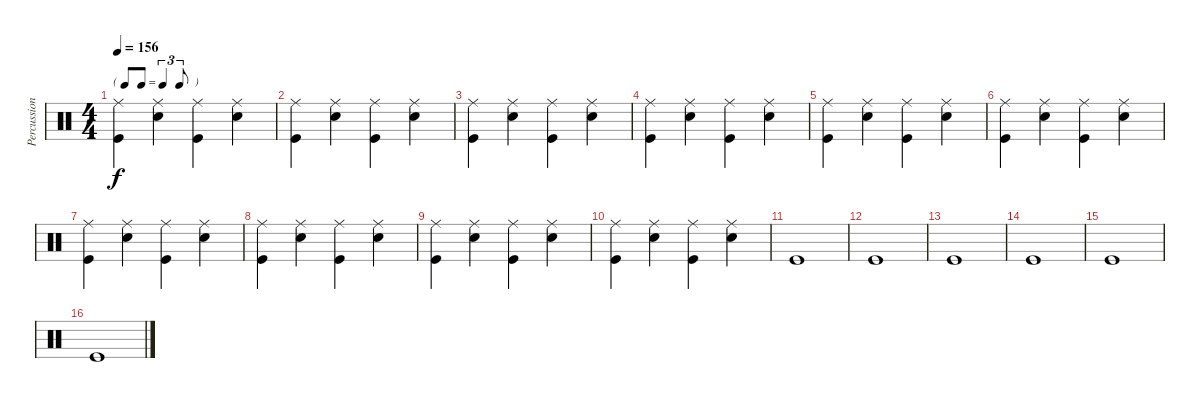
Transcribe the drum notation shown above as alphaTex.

\track ("Percussion" "Percussion") {instrument percussion}
\staff {score}
\articulation defaults
\ts (4 4)
\tf triplet8th
\tempo 156
\clef neutral
\ks c
("Ride (middle)" "Kick (hit)").4{dy f} ("Snare (hit) 2" "Ride (middle)").4 ("Ride (middle)" "Kick (hit)").4 ("Snare (hit) 2" "Ride (middle)").4 |
("Ride (middle)" "Kick (hit)").4 ("Snare (hit) 2" "Ride (middle)").4 ("Ride (middle)" "Kick (hit)").4 ("Snare (hit) 2" "Ride (middle)").4 |
("Ride (middle)" "Kick (hit)").4 ("Snare (hit) 2" "Ride (middle)").4 ("Ride (middle)" "Kick (hit)").4 ("Snare (hit) 2" "Ride (middle)").4 |
("Ride (middle)" "Kick (hit)").4 ("Snare (hit) 2" "Ride (middle)").4 ("Ride (middle)" "Kick (hit)").4 ("Snare (hit) 2" "Ride (middle)").4 |
("Ride (middle)" "Kick (hit)").4 ("Snare (hit) 2" "Ride (middle)").4 ("Ride (middle)" "Kick (hit)").4 ("Snare (hit) 2" "Ride (middle)").4 |
("Ride (middle)" "Kick (hit)").4 ("Snare (hit) 2" "Ride (middle)").4 ("Ride (middle)" "Kick (hit)").4 ("Snare (hit) 2" "Ride (middle)").4 |
("Ride (middle)" "Kick (hit)").4 ("Snare (hit) 2" "Ride (middle)").4 ("Ride (middle)" "Kick (hit)").4 ("Snare (hit) 2" "Ride (middle)").4 |
("Ride (middle)" "Kick (hit)").4 ("Snare (hit) 2" "Ride (middle)").4 ("Ride (middle)" "Kick (hit)").4 ("Snare (hit) 2" "Ride (middle)").4 |
("Ride (middle)" "Kick (hit)").4 ("Snare (hit) 2" "Ride (middle)").4 ("Ride (middle)" "Kick (hit)").4 ("Snare (hit) 2" "Ride (middle)").4 |
("Ride (middle)" "Kick (hit)").4 ("Snare (hit) 2" "Ride (middle)").4 ("Ride (middle)" "Kick (hit)").4 ("Snare (hit) 2" "Ride (middle)").4 |
"Kick (hit)".1 |
"Kick (hit)".1 |
"Kick (hit)".1 |
"Kick (hit)".1 |
"Kick (hit)".1 |
"Kick (hit)".1
